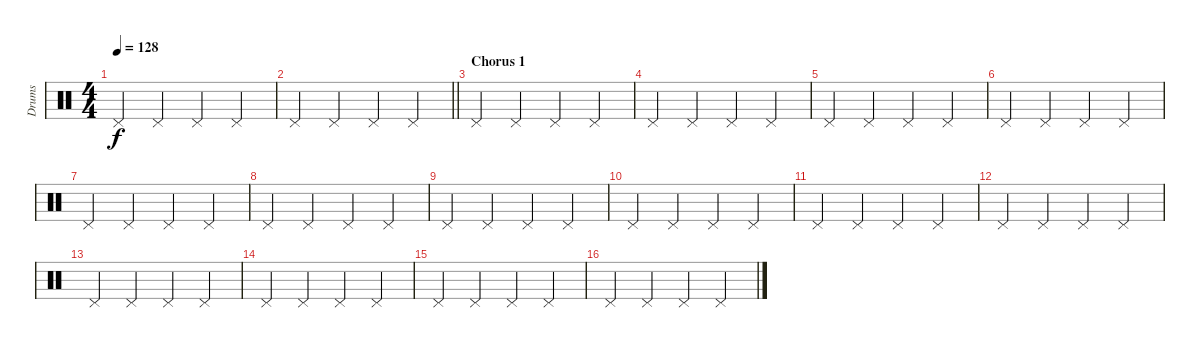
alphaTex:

\track ("Drums" "Drums") {instrument percussion}
\staff {score}
\articulation defaults
\ts (4 4)
\tempo 128
\clef neutral
\ks c "Pedal Hi-Hat (hit)".4{dy f} "Pedal Hi-Hat (hit)".4 "Pedal Hi-Hat (hit)".4 "Pedal Hi-Hat (hit)".4
|
\barLineRight lightlight "Pedal Hi-Hat (hit)".4 "Pedal Hi-Hat (hit)".4 "Pedal Hi-Hat (hit)".4 "Pedal Hi-Hat (hit)".4
|
\section ("" "Chorus 1")
"Pedal Hi-Hat (hit)".4 "Pedal Hi-Hat (hit)".4 "Pedal Hi-Hat (hit)".4 "Pedal Hi-Hat (hit)".4 |
"Pedal Hi-Hat (hit)".4 "Pedal Hi-Hat (hit)".4 "Pedal Hi-Hat (hit)".4 "Pedal Hi-Hat (hit)".4 |
"Pedal Hi-Hat (hit)".4 "Pedal Hi-Hat (hit)".4 "Pedal Hi-Hat (hit)".4 "Pedal Hi-Hat (hit)".4 |
"Pedal Hi-Hat (hit)".4 "Pedal Hi-Hat (hit)".4 "Pedal Hi-Hat (hit)".4 "Pedal Hi-Hat (hit)".4 |
"Pedal Hi-Hat (hit)".4 "Pedal Hi-Hat (hit)".4 "Pedal Hi-Hat (hit)".4 "Pedal Hi-Hat (hit)".4 |
"Pedal Hi-Hat (hit)".4 "Pedal Hi-Hat (hit)".4 "Pedal Hi-Hat (hit)".4 "Pedal Hi-Hat (hit)".4 |
"Pedal Hi-Hat (hit)".4 "Pedal Hi-Hat (hit)".4 "Pedal Hi-Hat (hit)".4 "Pedal Hi-Hat (hit)".4 |
"Pedal Hi-Hat (hit)".4 "Pedal Hi-Hat (hit)".4 "Pedal Hi-Hat (hit)".4 "Pedal Hi-Hat (hit)".4 |
"Pedal Hi-Hat (hit)".4 "Pedal Hi-Hat (hit)".4 "Pedal Hi-Hat (hit)".4 "Pedal Hi-Hat (hit)".4 |
"Pedal Hi-Hat (hit)".4 "Pedal Hi-Hat (hit)".4 "Pedal Hi-Hat (hit)".4 "Pedal Hi-Hat (hit)".4 |
"Pedal Hi-Hat (hit)".4 "Pedal Hi-Hat (hit)".4 "Pedal Hi-Hat (hit)".4 "Pedal Hi-Hat (hit)".4 |
"Pedal Hi-Hat (hit)".4 "Pedal Hi-Hat (hit)".4 "Pedal Hi-Hat (hit)".4 "Pedal Hi-Hat (hit)".4 |
"Pedal Hi-Hat (hit)".4 "Pedal Hi-Hat (hit)".4 "Pedal Hi-Hat (hit)".4 "Pedal Hi-Hat (hit)".4 |
"Pedal Hi-Hat (hit)".4 "Pedal Hi-Hat (hit)".4 "Pedal Hi-Hat (hit)".4 "Pedal Hi-Hat (hit)".4
